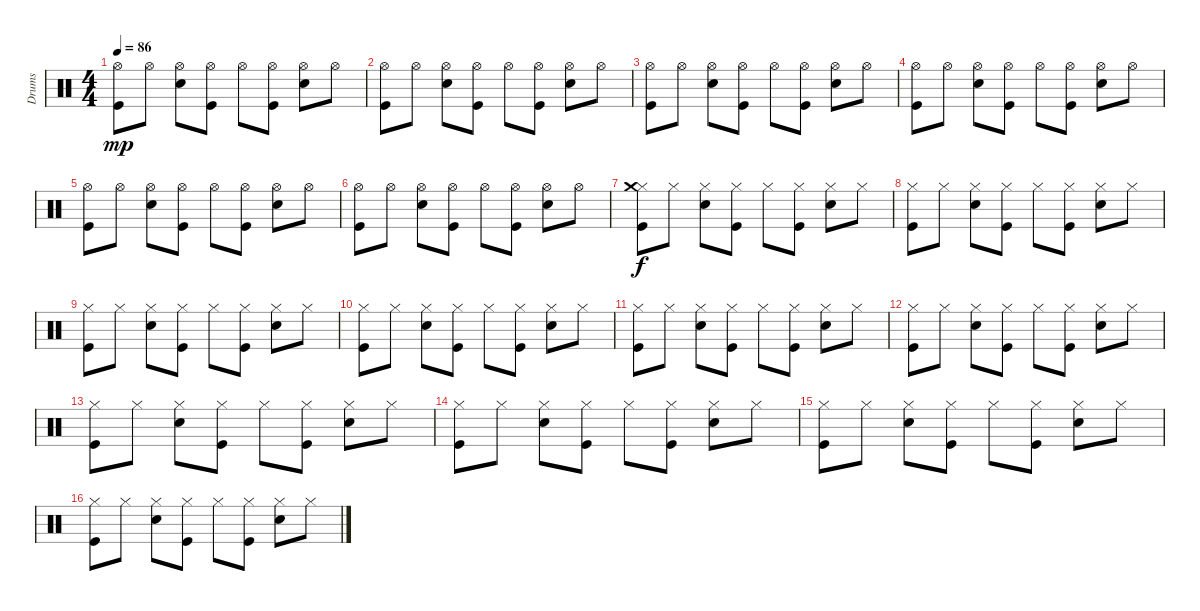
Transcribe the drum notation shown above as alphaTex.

\track ("Drums" "Drums") {instrument percussion}
\staff {score}
\articulation defaults
\ts (4 4)
\tempo 86
\clef neutral
\ks c
("Hi-Hat (open)" "Kick (hit)").8{dy mp} "Hi-Hat (open)".8 ("Hi-Hat (open)" "Snare (hit) 2").8 ("Hi-Hat (open)" "Kick (hit)").8 "Hi-Hat (open)".8 ("Hi-Hat (open)" "Kick (hit)").8 ("Hi-Hat (open)" "Snare (hit) 2").8 "Hi-Hat (open)".8 |
("Hi-Hat (open)" "Kick (hit)").8 "Hi-Hat (open)".8 ("Hi-Hat (open)" "Snare (hit) 2").8 ("Hi-Hat (open)" "Kick (hit)").8 "Hi-Hat (open)".8 ("Hi-Hat (open)" "Kick (hit)").8 ("Hi-Hat (open)" "Snare (hit) 2").8 "Hi-Hat (open)".8 |
("Hi-Hat (open)" "Kick (hit)").8 "Hi-Hat (open)".8 ("Hi-Hat (open)" "Snare (hit) 2").8 ("Hi-Hat (open)" "Kick (hit)").8 "Hi-Hat (open)".8 ("Hi-Hat (open)" "Kick (hit)").8 ("Hi-Hat (open)" "Snare (hit) 2").8 "Hi-Hat (open)".8 |
("Hi-Hat (open)" "Kick (hit)").8 "Hi-Hat (open)".8 ("Hi-Hat (open)" "Snare (hit) 2").8 ("Hi-Hat (open)" "Kick (hit)").8 "Hi-Hat (open)".8 ("Hi-Hat (open)" "Kick (hit)").8 ("Hi-Hat (open)" "Snare (hit) 2").8 "Hi-Hat (open)".8 |
("Hi-Hat (open)" "Kick (hit)").8 "Hi-Hat (open)".8 ("Hi-Hat (open)" "Snare (hit) 2").8 ("Hi-Hat (open)" "Kick (hit)").8 "Hi-Hat (open)".8 ("Hi-Hat (open)" "Kick (hit)").8 ("Hi-Hat (open)" "Snare (hit) 2").8 "Hi-Hat (open)".8 |
("Hi-Hat (open)" "Kick (hit)").8 "Hi-Hat (open)".8 ("Hi-Hat (open)" "Snare (hit) 2").8 ("Hi-Hat (open)" "Kick (hit)").8 "Hi-Hat (open)".8 ("Hi-Hat (open)" "Kick (hit)").8 ("Hi-Hat (open)" "Snare (hit) 2").8 "Hi-Hat (open)".8 |
("Hi-Hat (closed)" "Kick (hit)" "Crash medium (hit)").8{dy f} "Hi-Hat (closed)".8 ("Hi-Hat (closed)" "Snare (hit) 2").8 ("Hi-Hat (closed)" "Kick (hit)").8 "Hi-Hat (closed)".8 ("Hi-Hat (closed)" "Kick (hit)").8 ("Hi-Hat (closed)" "Snare (hit) 2").8 "Hi-Hat (closed)".8 |
("Hi-Hat (closed)" "Kick (hit)").8 "Hi-Hat (closed)".8 ("Hi-Hat (closed)" "Snare (hit) 2").8 ("Hi-Hat (closed)" "Kick (hit)").8 "Hi-Hat (closed)".8 ("Hi-Hat (closed)" "Kick (hit)").8 ("Hi-Hat (closed)" "Snare (hit) 2").8 "Hi-Hat (closed)".8 |
("Hi-Hat (closed)" "Kick (hit)").8 "Hi-Hat (closed)".8 ("Hi-Hat (closed)" "Snare (hit) 2").8 ("Hi-Hat (closed)" "Kick (hit)").8 "Hi-Hat (closed)".8 ("Hi-Hat (closed)" "Kick (hit)").8 ("Hi-Hat (closed)" "Snare (hit) 2").8 "Hi-Hat (closed)".8 |
("Hi-Hat (closed)" "Kick (hit)").8 "Hi-Hat (closed)".8 ("Hi-Hat (closed)" "Snare (hit) 2").8 ("Hi-Hat (closed)" "Kick (hit)").8 "Hi-Hat (closed)".8 ("Hi-Hat (closed)" "Kick (hit)").8 ("Hi-Hat (closed)" "Snare (hit) 2").8 "Hi-Hat (closed)".8 |
("Hi-Hat (closed)" "Kick (hit)").8 "Hi-Hat (closed)".8 ("Hi-Hat (closed)" "Snare (hit) 2").8 ("Hi-Hat (closed)" "Kick (hit)").8 "Hi-Hat (closed)".8 ("Hi-Hat (closed)" "Kick (hit)").8 ("Hi-Hat (closed)" "Snare (hit) 2").8 "Hi-Hat (closed)".8 |
("Hi-Hat (closed)" "Kick (hit)").8 "Hi-Hat (closed)".8 ("Hi-Hat (closed)" "Snare (hit) 2").8 ("Hi-Hat (closed)" "Kick (hit)").8 "Hi-Hat (closed)".8 ("Hi-Hat (closed)" "Kick (hit)").8 ("Hi-Hat (closed)" "Snare (hit) 2").8 "Hi-Hat (closed)".8 |
("Hi-Hat (closed)" "Kick (hit)").8 "Hi-Hat (closed)".8 ("Hi-Hat (closed)" "Snare (hit) 2").8 ("Hi-Hat (closed)" "Kick (hit)").8 "Hi-Hat (closed)".8 ("Hi-Hat (closed)" "Kick (hit)").8 ("Hi-Hat (closed)" "Snare (hit) 2").8 "Hi-Hat (closed)".8 |
("Hi-Hat (closed)" "Kick (hit)").8 "Hi-Hat (closed)".8 ("Hi-Hat (closed)" "Snare (hit) 2").8 ("Hi-Hat (closed)" "Kick (hit)").8 "Hi-Hat (closed)".8 ("Hi-Hat (closed)" "Kick (hit)").8 ("Hi-Hat (closed)" "Snare (hit) 2").8 "Hi-Hat (closed)".8 |
("Hi-Hat (closed)" "Kick (hit)").8 "Hi-Hat (closed)".8 ("Hi-Hat (closed)" "Snare (hit) 2").8 ("Hi-Hat (closed)" "Kick (hit)").8 "Hi-Hat (closed)".8 ("Hi-Hat (closed)" "Kick (hit)").8 ("Hi-Hat (closed)" "Snare (hit) 2").8 "Hi-Hat (closed)".8 |
("Hi-Hat (closed)" "Kick (hit)").8 "Hi-Hat (closed)".8 ("Hi-Hat (closed)" "Snare (hit) 2").8 ("Hi-Hat (closed)" "Kick (hit)").8 "Hi-Hat (closed)".8 ("Hi-Hat (closed)" "Kick (hit)").8 ("Hi-Hat (closed)" "Snare (hit) 2").8 "Hi-Hat (closed)".8
